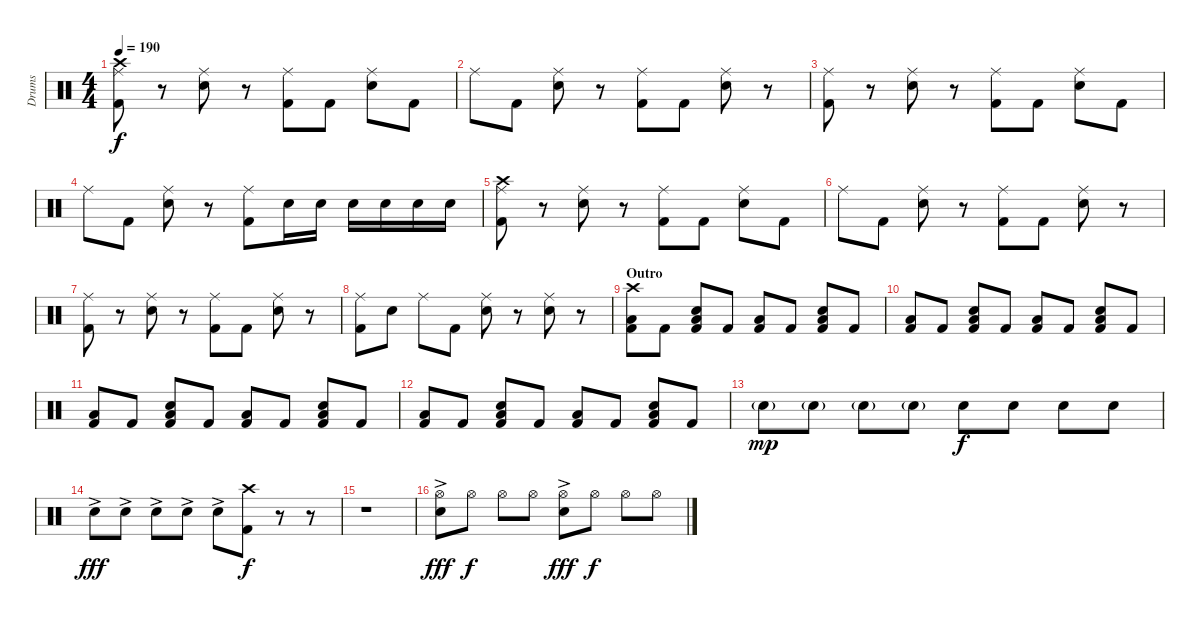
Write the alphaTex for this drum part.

\track ("Drums" "Drums") {instrument percussion}
\staff {score}
\articulation defaults
\ts (4 4)
\tempo 190
\clef neutral
\ks c
("Ride (middle)" "Crash high (hit)" "Kick (hit) 2").8{dy f} r.8 ("Ride (middle)" "Snare (hit) 2").8 r.8 ("Ride (middle)" "Kick (hit) 2").8 "Kick (hit) 2".8 ("Ride (middle)" "Snare (hit) 2").8 "Kick (hit) 2".8 |
"Ride (middle)".8 "Kick (hit) 2".8 ("Ride (middle)" "Snare (hit) 2").8 r.8 ("Ride (middle)" "Kick (hit) 2").8 "Kick (hit) 2".8 ("Ride (middle)" "Snare (hit) 2").8 r.8 |
("Ride (middle)" "Kick (hit) 2").8 r.8 ("Ride (middle)" "Snare (hit) 2").8 r.8 ("Ride (middle)" "Kick (hit) 2").8 "Kick (hit) 2".8 ("Ride (middle)" "Snare (hit) 2").8 "Kick (hit) 2".8 |
"Ride (middle)".8 "Kick (hit) 2".8 ("Ride (middle)" "Snare (hit) 2").8 r.8 ("Ride (middle)" "Kick (hit) 2").8 "Snare (hit) 2".16 "Snare (hit) 2".16 "Snare (hit) 2".16 "Snare (hit) 2".16 "Snare (hit) 2".16 "Snare (hit) 2".16 |
("Ride (middle)" "Crash high (hit)" "Kick (hit) 2").8 r.8 ("Ride (middle)" "Snare (hit) 2").8 r.8 ("Ride (middle)" "Kick (hit) 2").8 "Kick (hit) 2".8 ("Ride (middle)" "Snare (hit) 2").8 "Kick (hit) 2".8 |
"Ride (middle)".8 "Kick (hit) 2".8 ("Ride (middle)" "Snare (hit) 2").8 r.8 ("Ride (middle)" "Kick (hit) 2").8 "Kick (hit) 2".8 ("Ride (middle)" "Snare (hit) 2").8 r.8 |
("Ride (middle)" "Kick (hit) 2").8 r.8 ("Ride (middle)" "Snare (hit) 2").8 r.8 ("Ride (middle)" "Kick (hit) 2").8 "Kick (hit) 2".8 ("Ride (middle)" "Snare (hit) 2").8 r.8 |
("Ride (middle)" "Kick (hit) 2").8 "Snare (hit) 2".8 "Ride (middle)".8 "Kick (hit) 2".8 ("Ride (middle)" "Snare (hit) 2").8 r.8 ("Ride (middle)" "Snare (hit) 2").8 r.8 |
\section ("" "Outro")
("Crash high (hit)" "Low Floor Tom (hit)" "Kick (hit) 2").8 "Kick (hit) 2".8 ("Low Floor Tom (hit)" "Snare (hit) 2" "Kick (hit) 2").8 "Kick (hit) 2".8 ("Low Floor Tom (hit)" "Kick (hit) 2").8 "Kick (hit) 2".8 ("Low Floor Tom (hit)" "Snare (hit) 2" "Kick (hit) 2").8 "Kick (hit) 2".8 |
("Low Floor Tom (hit)" "Kick (hit) 2").8 "Kick (hit) 2".8 ("Low Floor Tom (hit)" "Snare (hit) 2" "Kick (hit) 2").8 "Kick (hit) 2".8 ("Low Floor Tom (hit)" "Kick (hit) 2").8 "Kick (hit) 2".8 ("Low Floor Tom (hit)" "Snare (hit) 2" "Kick (hit) 2").8 "Kick (hit) 2".8 |
("Low Floor Tom (hit)" "Kick (hit) 2").8 "Kick (hit) 2".8 ("Low Floor Tom (hit)" "Snare (hit) 2" "Kick (hit) 2").8 "Kick (hit) 2".8 ("Low Floor Tom (hit)" "Kick (hit) 2").8 "Kick (hit) 2".8 ("Low Floor Tom (hit)" "Snare (hit) 2" "Kick (hit) 2").8 "Kick (hit) 2".8 |
("Low Floor Tom (hit)" "Kick (hit) 2").8 "Kick (hit) 2".8 ("Low Floor Tom (hit)" "Snare (hit) 2" "Kick (hit) 2").8 "Kick (hit) 2".8 ("Low Floor Tom (hit)" "Kick (hit) 2").8 "Kick (hit) 2".8 ("Low Floor Tom (hit)" "Snare (hit) 2" "Kick (hit) 2").8 "Kick (hit) 2".8 |
"Snare (hit) 2"{g}.8{dy mp} "Snare (hit) 2"{g}.8 "Snare (hit) 2"{g}.8 "Snare (hit) 2"{g}.8 "Snare (hit) 2".8{dy f} "Snare (hit) 2".8 "Snare (hit) 2".8 "Snare (hit) 2".8 |
"Snare (hit) 2"{ac}.8{dy fff} "Snare (hit) 2"{ac}.8 "Snare (hit) 2"{ac}.8 "Snare (hit) 2"{ac}.8 "Snare (hit) 2"{ac}.8 ("Crash high (hit)" "Kick (hit) 2").8{dy f} r.8 r.8 |
r.1 |
("Hi-Hat (open)"{ac} "Snare (hit) 2"{ac}).8{dy fff} "Hi-Hat (open)".8{dy f} "Hi-Hat (open)".8 "Hi-Hat (open)".8 ("Hi-Hat (open)"{ac} "Snare (hit) 2"{ac}).8{dy fff} "Hi-Hat (open)".8{dy f} "Hi-Hat (open)".8 "Hi-Hat (open)".8
